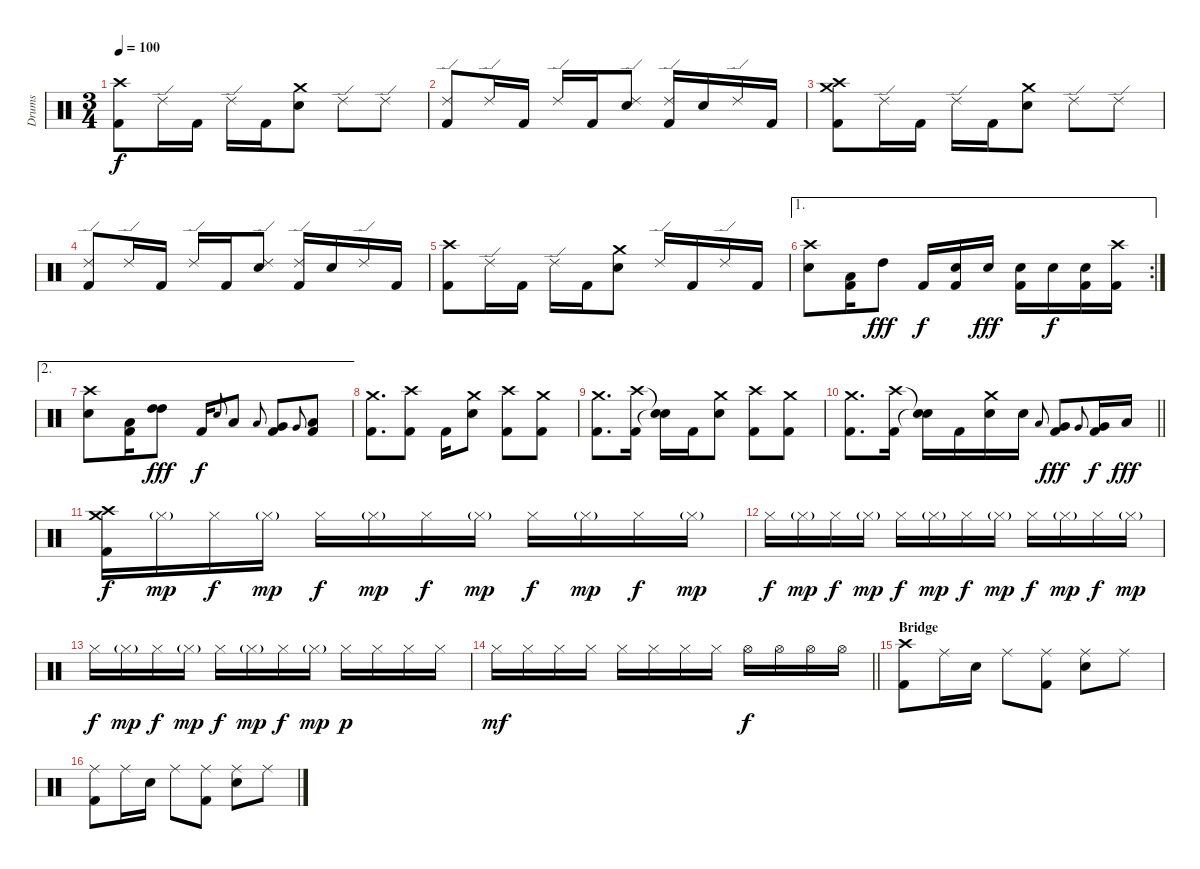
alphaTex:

\track ("Drums" "Drums") {instrument percussion}
\staff {score}
\articulation defaults
\ts (3 4)
\tempo 100
\clef neutral
\ks c
("Crash high (hit)" "Kick (hit) 2").8{dy f} "Ride (edge) 2".16 "Kick (hit) 2".16 "Ride (edge) 2".16 "Kick (hit) 2".16 ("Crash medium (hit)" "Electric Snare (hit)").8 "Ride (edge) 2".8 "Ride (edge) 2".8 |
("Ride (edge) 2" "Kick (hit) 2").8 "Ride (edge) 2".16 "Kick (hit) 2".16 "Ride (edge) 2".16 "Kick (hit) 2".16 ("Ride (edge) 2" "Electric Snare (hit)").8 ("Ride (edge) 2" "Kick (hit) 2").16 "Electric Snare (hit)".16 "Ride (edge) 2".16 "Kick (hit) 2".16 |
("Crash high (hit)" "Crash medium (hit)" "Kick (hit) 2").8 "Ride (edge) 2".16 "Kick (hit) 2".16 "Ride (edge) 2".16 "Kick (hit) 2".16 ("Crash medium (hit)" "Electric Snare (hit)").8 "Ride (edge) 2".8 "Ride (edge) 2".8 |
("Ride (edge) 2" "Kick (hit) 2").8 "Ride (edge) 2".16 "Kick (hit) 2".16 "Ride (edge) 2".16 "Kick (hit) 2".16 ("Ride (edge) 2" "Electric Snare (hit)").8 ("Ride (edge) 2" "Kick (hit) 2").16 "Electric Snare (hit)".16 "Ride (edge) 2".16 "Kick (hit) 2".16 |
("Crash high (hit)" "Kick (hit) 2").8 "Ride (edge) 2".16 "Kick (hit) 2".16 "Ride (edge) 2".16 "Kick (hit) 2".16 ("Crash medium (hit)" "Electric Snare (hit)").8 "Ride (edge) 2".16 "Kick (hit) 2".16 "Ride (edge) 2".16 "Kick (hit) 2".16 |
\ae 1
\rc 2
("Crash high (hit)" "Electric Snare (hit)").8 ("Low Tom (hit)" "Kick (hit) 2").16 "High Tom (hit)".8{dy fff} "Kick (hit) 2".16{dy f} ("Electric Snare (hit)" "Kick (hit) 2").16 "Electric Snare (hit)".16{dy fff} ("Electric Snare (hit)" "Kick (hit) 2").16 "Electric Snare (hit)".16{dy f} ("Electric Snare (hit)" "Kick (hit) 2").16 ("Crash high (hit)" "Kick (hit) 2").16 |
\ae 2
("Crash high (hit)" "Electric Snare (hit)").8 ("Low Tom (hit)" "Kick (hit) 2").16 ("High Tom (hit)" "High Tom (hit)").8{dy fff} "Kick (hit) 2".16{dy f} "Electric Snare (hit)".8{gr onbeat} "Low Tom (hit)".8 "Low Tom (hit)".8{gr onbeat} ("Very Low Tom (hit)" "Kick (hit) 2").8 "Very Low Tom (hit)".8{gr onbeat} ("Low Floor Tom (hit)" "Kick (hit) 2").8 |
("Crash medium (hit)" "Kick (hit) 2").8{d} ("Crash high (hit)" "Kick (hit) 2").8 "Kick (hit) 2".16 ("Crash medium (hit)" "Electric Snare (hit)").8 ("Crash high (hit)" "Kick (hit) 2").8 ("Crash medium (hit)" "Kick (hit) 2").8 |
("Crash medium (hit)" "Kick (hit) 2").8{d} ("Crash high (hit)" "Kick (hit) 2").16 ("Snare (hit)"{t} "Snare (hit)"{t}).16 "Kick (hit) 2".16 ("Crash medium (hit)" "Electric Snare (hit)").8 ("Crash high (hit)" "Kick (hit) 2").8 ("Crash medium (hit)" "Kick (hit) 2").8 |
\barLineRight lightlight
("Crash medium (hit)" "Kick (hit) 2").8{d} ("Crash high (hit)" "Kick (hit) 2").16 ("Snare (hit)"{t} "Snare (hit)"{t}).16 "Kick (hit) 2".16 ("Crash medium (hit)" "Electric Snare (hit)").16 "Electric Snare (hit)".16 "Low Tom (hit)".8{gr onbeat} ("Very Low Tom (hit)" "Kick (hit) 2").8{dy fff} "Very Low Tom (hit)".8{gr onbeat} ("Very Low Tom (hit)" "Kick (hit) 2").16{dy f} "Low Floor Tom (hit)".16{dy fff} |
("Crash medium (hit)" "Crash high (hit)" "Kick (hit) 2").16{dy f} "Hi-Hat (closed)"{g}.16{dy mp} "Hi-Hat (closed)".16{dy f} "Hi-Hat (closed)"{g}.16{dy mp} "Hi-Hat (closed)".16{dy f} "Hi-Hat (closed)"{g}.16{dy mp} "Hi-Hat (closed)".16{dy f} "Hi-Hat (closed)"{g}.16{dy mp} "Hi-Hat (closed)".16{dy f} "Hi-Hat (closed)"{g}.16{dy mp} "Hi-Hat (closed)".16{dy f} "Hi-Hat (closed)"{g}.16{dy mp} |
"Hi-Hat (closed)".16{dy f} "Hi-Hat (closed)"{g}.16{dy mp} "Hi-Hat (closed)".16{dy f} "Hi-Hat (closed)"{g}.16{dy mp} "Hi-Hat (closed)".16{dy f} "Hi-Hat (closed)"{g}.16{dy mp} "Hi-Hat (closed)".16{dy f} "Hi-Hat (closed)"{g}.16{dy mp} "Hi-Hat (closed)".16{dy f} "Hi-Hat (closed)"{g}.16{dy mp} "Hi-Hat (closed)".16{dy f} "Hi-Hat (closed)"{g}.16{dy mp} |
"Hi-Hat (closed)".16{dy f} "Hi-Hat (closed)"{g}.16{dy mp} "Hi-Hat (closed)".16{dy f} "Hi-Hat (closed)"{g}.16{dy mp} "Hi-Hat (closed)".16{dy f} "Hi-Hat (closed)"{g}.16{dy mp} "Hi-Hat (closed)".16{dy f} "Hi-Hat (closed)"{g}.16{dy mp} "Hi-Hat (closed)".16{dy p} "Hi-Hat (closed)".16 "Hi-Hat (closed)".16 "Hi-Hat (closed)".16 |
\barLineRight lightlight "Hi-Hat (closed)".16{dy mf} "Hi-Hat (closed)".16 "Hi-Hat (closed)".16 "Hi-Hat (closed)".16 "Hi-Hat (closed)".16 "Hi-Hat (closed)".16 "Hi-Hat (closed)".16 "Hi-Hat (closed)".16 "Hi-Hat (open)".16{dy f} "Hi-Hat (open)".16 "Hi-Hat (open)".16 "Hi-Hat (open)".16
|
\section ("" "Bridge")
("Crash high (hit)" "Kick (hit) 2").8 "Ride (middle)".16 "Electric Snare (hit)".16 "Ride (middle)".8 ("Ride (middle)" "Kick (hit) 2").8 ("Ride (middle)" "Electric Snare (hit)").8 "Ride (middle)".8 |
("Ride (middle)" "Kick (hit) 2").8 "Ride (middle)".16 "Electric Snare (hit)".16 "Ride (middle)".8 ("Ride (middle)" "Kick (hit) 2").8 ("Ride (middle)" "Electric Snare (hit)").8 "Ride (middle)".8
